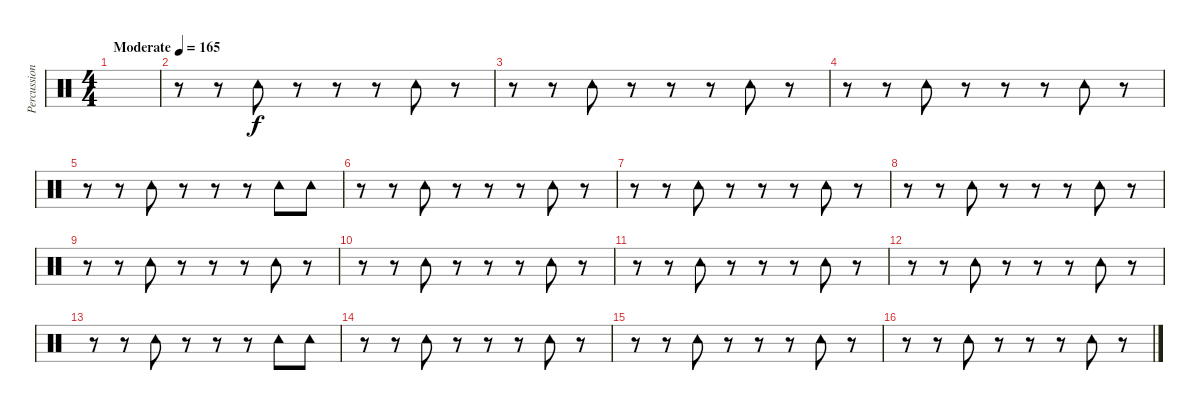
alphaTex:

\track ("Percussion/Fills" "Percussion") {instrument percussion}
\staff {score}
\articulation defaults
\ts (4 4)
\tempo (165 "Moderate")
\clef neutral
\ks c
|
r.8 r.8 "Tambourine (hit)".8 r.8 r.8 r.8 "Tambourine (hit)".8 r.8 |
r.8 r.8 "Tambourine (hit)".8 r.8 r.8 r.8 "Tambourine (hit)".8 r.8 |
r.8 r.8 "Tambourine (hit)".8 r.8 r.8 r.8 "Tambourine (hit)".8 r.8 |
r.8 r.8 "Tambourine (hit)".8 r.8 r.8 r.8 "Tambourine (hit)".8 "Tambourine (hit)".8 |
r.8 r.8 "Tambourine (hit)".8 r.8 r.8 r.8 "Tambourine (hit)".8 r.8 |
r.8 r.8 "Tambourine (hit)".8 r.8 r.8 r.8 "Tambourine (hit)".8 r.8 |
r.8 r.8 "Tambourine (hit)".8 r.8 r.8 r.8 "Tambourine (hit)".8 r.8 |
r.8 r.8 "Tambourine (hit)".8 r.8 r.8 r.8 "Tambourine (hit)".8 r.8 |
r.8 r.8 "Tambourine (hit)".8 r.8 r.8 r.8 "Tambourine (hit)".8 r.8 |
r.8 r.8 "Tambourine (hit)".8 r.8 r.8 r.8 "Tambourine (hit)".8 r.8 |
r.8 r.8 "Tambourine (hit)".8 r.8 r.8 r.8 "Tambourine (hit)".8 r.8 |
r.8 r.8 "Tambourine (hit)".8 r.8 r.8 r.8 "Tambourine (hit)".8 "Tambourine (hit)".8 |
r.8 r.8 "Tambourine (hit)".8 r.8 r.8 r.8 "Tambourine (hit)".8 r.8 |
r.8 r.8 "Tambourine (hit)".8 r.8 r.8 r.8 "Tambourine (hit)".8 r.8 |
r.8 r.8 "Tambourine (hit)".8 r.8 r.8 r.8 "Tambourine (hit)".8 r.8
